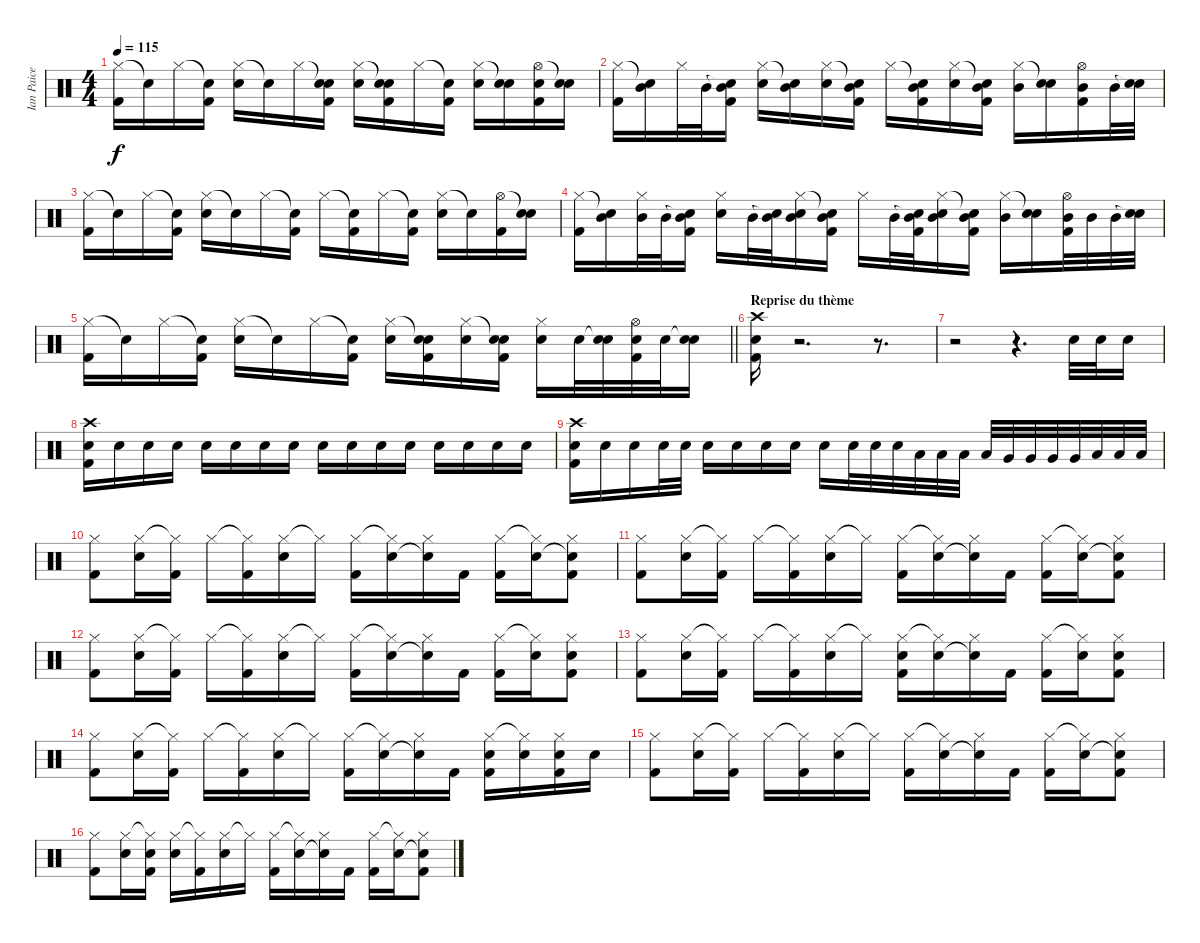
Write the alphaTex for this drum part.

\track ("Ian Paice" "Ian Paice") {instrument percussion}
\staff {score}
\articulation defaults
\ts (4 4)
\tempo 115
\clef neutral
\ks c
("Hi-Hat (closed)" "Kick (hit) 2").16{dy f} "Snare (hit)"{t}.16 "Hi-Hat (closed)".16 ("Snare (hit)"{t} "Kick (hit) 2").16 ("Hi-Hat (closed)" "Snare (hit) 2").16 "Snare (hit)"{t}.16 "Hi-Hat (closed)".16 ("Snare (hit)"{t} "Snare (hit) 2" "Kick (hit) 2").16 ("Hi-Hat (closed)" "Snare (hit) 2").16 ("Snare (hit)"{t} "Snare (hit) 2" "Kick (hit) 2").16 "Hi-Hat (closed)".16 ("Snare (hit)"{t} "Kick (hit) 2").16 ("Hi-Hat (closed)" "Snare (hit) 2").16 ("Snare (hit)"{t} "Snare (hit) 2").16 ("Hi-Hat (open)" "Snare (hit) 2" "Kick (hit) 2").16 ("Snare (hit)"{t} "Snare (hit) 2").16 |
("Hi-Hat (closed)" "Kick (hit) 2").16 ("Snare (hit)"{t} "Mid Tom (hit)").16 "Hi-Hat (closed)".32 "Mid Tom (hit)".32 ("Snare (hit)"{t} "Mid Tom (hit)" "Kick (hit) 2").16 ("Hi-Hat (closed)" "Snare (hit) 2").16 ("Snare (hit)"{t} "Mid Tom (hit)").16 ("Hi-Hat (closed)" "Snare (hit) 2").16 ("Snare (hit)"{t} "Mid Tom (hit)" "Kick (hit) 2").16 "Hi-Hat (closed)".16 ("Snare (hit)"{t} "Mid Tom (hit)" "Kick (hit) 2").16 ("Hi-Hat (closed)" "Snare (hit) 2").16 ("Snare (hit)"{t} "Mid Tom (hit)" "Kick (hit) 2").16 ("Hi-Hat (closed)" "Mid Tom (hit)").16 ("Snare (hit)"{t} "Snare (hit) 2").16 ("Hi-Hat (open)" "Mid Tom (hit)" "Kick (hit) 2").16 "Mid Tom (hit)".32 ("Snare (hit)"{t} "Snare (hit) 2").32 |
("Hi-Hat (closed)" "Kick (hit) 2").16 "Snare (hit)"{t}.16 "Hi-Hat (closed)".16 ("Snare (hit)"{t} "Kick (hit) 2").16 ("Hi-Hat (closed)" "Snare (hit) 2").16 "Snare (hit)"{t}.16 "Hi-Hat (closed)".16 ("Snare (hit)"{t} "Kick (hit) 2").16 "Hi-Hat (closed)".16 ("Snare (hit)"{t} "Kick (hit) 2").16 "Hi-Hat (closed)".16 ("Snare (hit)"{t} "Kick (hit) 2").16 ("Hi-Hat (closed)" "Snare (hit) 2").16 "Snare (hit)"{t}.16 ("Hi-Hat (open)" "Kick (hit) 2").16 ("Snare (hit)"{t} "Snare (hit) 2").16 |
("Hi-Hat (closed)" "Kick (hit) 2").16 ("Snare (hit)"{t} "Mid Tom (hit)").16 ("Hi-Hat (closed)" "Mid Tom (hit)").32 "Mid Tom (hit)".32 ("Snare (hit)"{t} "Mid Tom (hit)" "Kick (hit) 2").16 ("Hi-Hat (closed)" "Snare (hit) 2").16 "Mid Tom (hit)".32 ("Snare (hit)"{t} "Mid Tom (hit)").32 ("Hi-Hat (closed)" "Mid Tom (hit)" "Snare (hit) 2").16 ("Snare (hit)"{t} "Mid Tom (hit)" "Kick (hit) 2").16 "Hi-Hat (closed)".16 "Mid Tom (hit)".32 ("Snare (hit)"{t} "Mid Tom (hit)" "Kick (hit) 2").32 ("Hi-Hat (closed)" "Mid Tom (hit)" "Snare (hit) 2").16 ("Snare (hit)"{t} "Mid Tom (hit)" "Kick (hit) 2").16 ("Hi-Hat (closed)" "Mid Tom (hit)").16 ("Snare (hit)"{t} "Snare (hit) 2").16 ("Hi-Hat (open)" "Mid Tom (hit)" "Kick (hit) 2").32 "Mid Tom (hit)".32 "Mid Tom (hit)".32 ("Snare (hit)"{t} "Snare (hit) 2").32 |
\barLineRight lightlight
("Hi-Hat (closed)" "Kick (hit) 2").16 "Snare (hit)"{t}.16 "Hi-Hat (closed)".16 ("Snare (hit)"{t} "Kick (hit) 2").16 ("Hi-Hat (closed)" "Snare (hit) 2").16 "Snare (hit)"{t}.16 "Hi-Hat (closed)".16 ("Snare (hit)"{t} "Kick (hit) 2").16 ("Hi-Hat (closed)" "Snare (hit) 2").16 ("Snare (hit)"{t} "Snare (hit) 2" "Kick (hit) 2").16 ("Hi-Hat (closed)" "Snare (hit) 2").16 ("Snare (hit)"{t} "Snare (hit) 2" "Kick (hit) 2").16 ("Hi-Hat (closed)" "Snare (hit) 2").16 "Snare (hit) 2".32 ("Snare (hit)"{t} "Snare (hit) 2").32 ("Hi-Hat (open)" "Snare (hit) 2" "Kick (hit) 2").32 "Snare (hit) 2".32 ("Snare (hit)"{t} "Snare (hit) 2").16 |
\section ("" "Reprise du thème")
("Crash high (hit)" "Snare (hit) 2" "Kick (hit) 2").16 r.2{d} r.8{d} |
r.2 r.4{d} "Snare (hit) 2".32 "Snare (hit) 2".32 "Snare (hit) 2".16 |
("Crash high (hit)" "Snare (hit) 2" "Kick (hit) 2").16 "Snare (hit) 2".16 "Snare (hit) 2".16 "Snare (hit) 2".16 "Snare (hit) 2".16 "Snare (hit) 2".16 "Snare (hit) 2".16 "Snare (hit) 2".16 "Snare (hit) 2".16 "Snare (hit) 2".16 "Snare (hit) 2".16 "Snare (hit) 2".16 "Snare (hit) 2".16 "Snare (hit) 2".16 "Snare (hit) 2".16 "Snare (hit) 2".16 |
("Crash high (hit)" "Snare (hit) 2" "Kick (hit) 2").16 "Snare (hit) 2".16 "Snare (hit) 2".16 "Snare (hit) 2".32 "Snare (hit) 2".32 "Snare (hit) 2".16 "Snare (hit) 2".16 "Snare (hit) 2".16 "Snare (hit) 2".16 "Snare (hit) 2".16 "Snare (hit) 2".32 "Snare (hit) 2".32 "Snare (hit) 2".32 "Low Tom (hit)".32 "Low Tom (hit)".32 "Low Tom (hit)".32 "Low Tom (hit)".32 "Very Low Tom (hit)".32 "Very Low Tom (hit)".32 "Very Low Tom (hit)".32 "Very Low Tom (hit)".32 "Low Floor Tom (hit)".32 "Low Floor Tom (hit)".32 "Low Floor Tom (hit)".32 |
("Hi-Hat (closed)" "Kick (hit) 2").8 ("Hi-Hat (closed)" "Snare (hit) 2").16 ("Hi-Hat (closed)"{t} "Kick (hit) 2").16 "Hi-Hat (closed)".16 ("Hi-Hat (closed)"{t} "Kick (hit) 2").16 ("Hi-Hat (closed)" "Snare (hit) 2").16 "Hi-Hat (closed)"{t}.16 ("Hi-Hat (closed)" "Kick (hit) 2").16 ("Hi-Hat (closed)"{t} "Snare (hit) 2").16 ("Hi-Hat (closed)" "Snare (hit) 2"{t}).16 "Kick (hit) 2".16 ("Hi-Hat (closed)" "Kick (hit) 2").16 ("Hi-Hat (closed)"{t} "Snare (hit) 2").16 ("Hi-Hat (closed)" "Snare (hit) 2"{t} "Kick (hit) 2").8 |
("Hi-Hat (closed)" "Kick (hit) 2").8 ("Hi-Hat (closed)" "Snare (hit) 2").16 ("Hi-Hat (closed)"{t} "Kick (hit) 2").16 "Hi-Hat (closed)".16 ("Hi-Hat (closed)"{t} "Kick (hit) 2").16 ("Hi-Hat (closed)" "Snare (hit) 2").16 "Hi-Hat (closed)"{t}.16 ("Hi-Hat (closed)" "Kick (hit) 2").16 ("Hi-Hat (closed)"{t} "Snare (hit) 2").16 ("Hi-Hat (closed)" "Snare (hit) 2"{t}).16 "Kick (hit) 2".16 ("Hi-Hat (closed)" "Kick (hit) 2").16 ("Hi-Hat (closed)"{t} "Snare (hit) 2").16 ("Hi-Hat (closed)" "Snare (hit) 2"{t} "Kick (hit) 2").8 |
("Hi-Hat (closed)" "Kick (hit) 2").8 ("Hi-Hat (closed)" "Snare (hit) 2").16 ("Hi-Hat (closed)"{t} "Kick (hit) 2").16 "Hi-Hat (closed)".16 ("Hi-Hat (closed)"{t} "Kick (hit) 2").16 ("Hi-Hat (closed)" "Snare (hit) 2").16 "Hi-Hat (closed)"{t}.16 ("Hi-Hat (closed)" "Kick (hit) 2").16 ("Hi-Hat (closed)"{t} "Snare (hit) 2").16 ("Hi-Hat (closed)" "Snare (hit) 2"{t}).16 "Kick (hit) 2".16 ("Hi-Hat (closed)" "Kick (hit) 2").16 ("Hi-Hat (closed)"{t} "Snare (hit) 2").16 ("Hi-Hat (closed)" "Snare (hit) 2" "Kick (hit) 2").8 |
("Hi-Hat (closed)" "Kick (hit) 2").8 ("Hi-Hat (closed)" "Snare (hit) 2").16 ("Hi-Hat (closed)"{t} "Kick (hit) 2").16 "Hi-Hat (closed)".16 ("Hi-Hat (closed)"{t} "Kick (hit) 2").16 ("Hi-Hat (closed)" "Snare (hit) 2").16 "Hi-Hat (closed)"{t}.16 ("Hi-Hat (closed)" "Snare (hit) 2" "Kick (hit) 2").16 ("Hi-Hat (closed)"{t} "Snare (hit) 2").16 ("Hi-Hat (closed)" "Snare (hit) 2"{t}).16 "Kick (hit) 2".16 ("Hi-Hat (closed)" "Kick (hit) 2").16 ("Hi-Hat (closed)"{t} "Snare (hit) 2").16 ("Hi-Hat (closed)" "Snare (hit) 2" "Kick (hit) 2").8 |
("Hi-Hat (closed)" "Kick (hit) 2").8 ("Hi-Hat (closed)" "Snare (hit) 2").16 ("Hi-Hat (closed)"{t} "Kick (hit) 2").16 "Hi-Hat (closed)".16 ("Hi-Hat (closed)"{t} "Kick (hit) 2").16 ("Hi-Hat (closed)" "Snare (hit) 2").16 "Hi-Hat (closed)"{t}.16 ("Hi-Hat (closed)" "Kick (hit) 2").16 ("Hi-Hat (closed)"{t} "Snare (hit) 2").16 ("Hi-Hat (closed)" "Snare (hit) 2"{t}).16 "Kick (hit) 2".16 ("Hi-Hat (closed)" "Snare (hit) 2" "Kick (hit) 2").16 ("Hi-Hat (closed)"{t} "Snare (hit) 2").16 ("Hi-Hat (closed)" "Snare (hit) 2" "Kick (hit) 2").16 "Snare (hit) 2".16 |
("Hi-Hat (closed)" "Kick (hit) 2").8 ("Hi-Hat (closed)" "Snare (hit) 2").16 ("Hi-Hat (closed)"{t} "Kick (hit) 2").16 "Hi-Hat (closed)".16 ("Hi-Hat (closed)"{t} "Kick (hit) 2").16 ("Hi-Hat (closed)" "Snare (hit) 2").16 "Hi-Hat (closed)"{t}.16 ("Hi-Hat (closed)" "Kick (hit) 2").16 ("Hi-Hat (closed)"{t} "Snare (hit) 2").16 ("Hi-Hat (closed)" "Snare (hit) 2"{t}).16 "Kick (hit) 2".16 ("Hi-Hat (closed)" "Kick (hit) 2").16 ("Hi-Hat (closed)"{t} "Snare (hit) 2").16 ("Hi-Hat (closed)" "Snare (hit) 2"{t} "Kick (hit) 2").8 |
("Hi-Hat (closed)" "Kick (hit) 2").8 ("Hi-Hat (closed)" "Snare (hit) 2").16 ("Hi-Hat (closed)"{t} "Snare (hit) 2" "Kick (hit) 2").16 ("Hi-Hat (closed)" "Snare (hit) 2").16 ("Hi-Hat (closed)"{t} "Kick (hit) 2").16 ("Hi-Hat (closed)" "Snare (hit) 2").16 "Hi-Hat (closed)"{t}.16 ("Hi-Hat (closed)" "Kick (hit) 2").16 ("Hi-Hat (closed)"{t} "Snare (hit) 2").16 ("Hi-Hat (closed)" "Snare (hit) 2"{t}).16 "Kick (hit) 2".16 ("Hi-Hat (closed)" "Kick (hit) 2").16 ("Hi-Hat (closed)"{t} "Snare (hit) 2").16 ("Hi-Hat (closed)" "Snare (hit) 2"{t} "Kick (hit) 2").8
